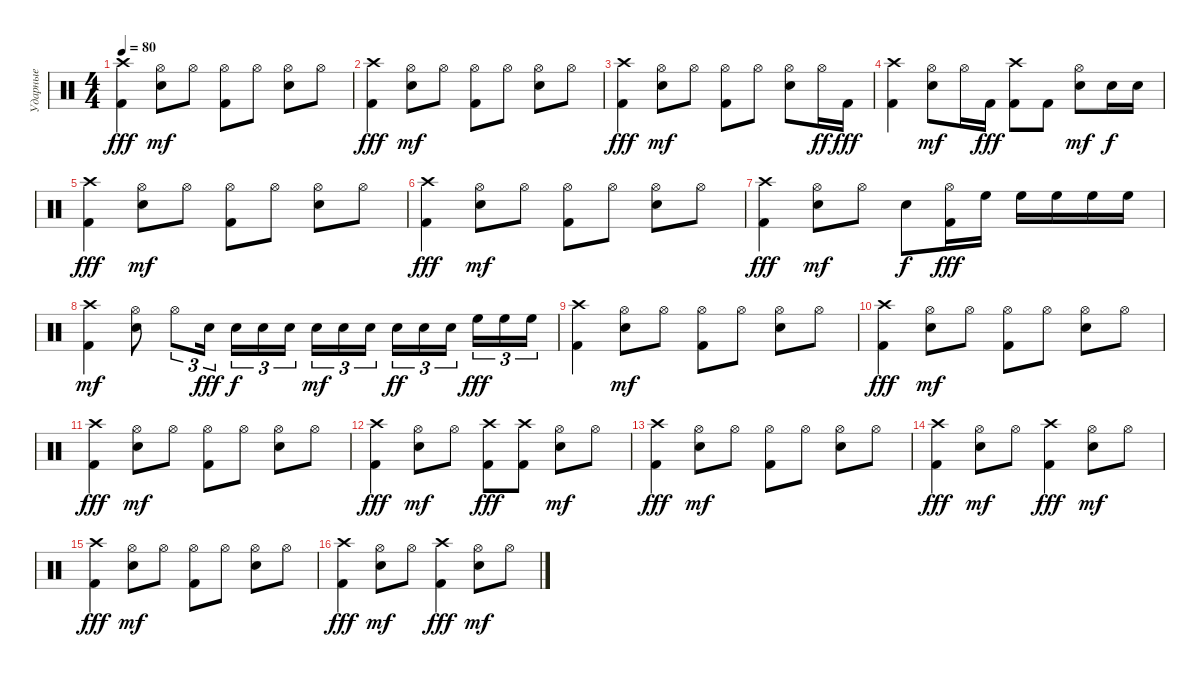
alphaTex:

\track ("Ударные" "Ударные") {instrument percussion}
\staff {score}
\articulation defaults
\ts (4 4)
\tempo 80
\clef neutral
\ks c
("Kick (hit) 2" "Crash high (hit)").4{dy fff} ("Snare (hit) 2" "Hi-Hat (open)").8{dy mf} "Hi-Hat (open)".8 ("Kick (hit) 2" "Hi-Hat (open)").8 "Hi-Hat (open)".8 ("Snare (hit) 2" "Hi-Hat (open)").8 "Hi-Hat (open)".8 |
("Kick (hit) 2" "Crash high (hit)").4{dy fff} ("Snare (hit) 2" "Hi-Hat (open)").8{dy mf} "Hi-Hat (open)".8 ("Kick (hit) 2" "Hi-Hat (open)").8 "Hi-Hat (open)".8 ("Snare (hit) 2" "Hi-Hat (open)").8 "Hi-Hat (open)".8 |
("Kick (hit) 2" "Crash high (hit)").4{dy fff} ("Snare (hit) 2" "Hi-Hat (open)").8{dy mf} "Hi-Hat (open)".8 ("Kick (hit) 2" "Hi-Hat (open)").8 "Hi-Hat (open)".8 ("Snare (hit) 2" "Hi-Hat (open)").8 "Hi-Hat (open)".16{dy ff} "Kick (hit) 2".16{dy fff} |
("Kick (hit) 2" "Crash high (hit)").4 ("Snare (hit) 2" "Hi-Hat (open)").8{dy mf} "Hi-Hat (open)".16 "Kick (hit) 2".16{dy fff} ("Kick (hit) 2" "Crash high (hit)").8 "Kick (hit) 2".8 ("Snare (hit) 2" "Hi-Hat (open)").8{dy mf} "Snare (hit) 2".16{dy f} "Snare (hit) 2".16 |
("Kick (hit) 2" "Crash high (hit)").4{dy fff} ("Snare (hit) 2" "Hi-Hat (open)").8{dy mf} "Hi-Hat (open)".8 ("Kick (hit) 2" "Hi-Hat (open)").8 "Hi-Hat (open)".8 ("Snare (hit) 2" "Hi-Hat (open)").8 "Hi-Hat (open)".8 |
("Kick (hit) 2" "Crash high (hit)").4{dy fff} ("Snare (hit) 2" "Hi-Hat (open)").8{dy mf} "Hi-Hat (open)".8 ("Kick (hit) 2" "Hi-Hat (open)").8 "Hi-Hat (open)".8 ("Snare (hit) 2" "Hi-Hat (open)").8 "Hi-Hat (open)".8 |
("Kick (hit) 2" "Crash high (hit)").4{dy fff} ("Snare (hit) 2" "Hi-Hat (open)").8{dy mf} "Hi-Hat (open)".8 "Snare (hit) 2".8{dy f} ("Kick (hit) 2" "Hi-Hat (open)").16{dy fff} "High Floor Tom (hit)".16 "High Floor Tom (hit)".16 "High Floor Tom (hit)".16 "High Floor Tom (hit)".16 "High Floor Tom (hit)".16 |
("Kick (hit) 2" "Crash high (hit)").4{dy mf} ("Snare (hit) 2" "Hi-Hat (open)").8 "Hi-Hat (open)".8{tu (3 2)} "Snare (hit) 2".16{tu (3 2) dy fff} "Snare (hit) 2".16{tu (3 2) dy f} "Snare (hit) 2".16{tu (3 2)} "Snare (hit) 2".16{tu (3 2) beam splitsecondary} "Snare (hit) 2".16{tu (3 2) dy mf} "Snare (hit) 2".16{tu (3 2)} "Snare (hit) 2".16{tu (3 2)} "Electric Snare (hit)".16{tu (3 2) dy ff} "Electric Snare (hit)".16{tu (3 2)} "Electric Snare (hit)".16{tu (3 2) beam splitsecondary} "High Floor Tom (hit)".16{tu (3 2) dy fff} "High Floor Tom (hit)".16{tu (3 2)} "High Floor Tom (hit)".16{tu (3 2)} |
("Kick (hit) 2" "Crash high (hit)").4 ("Snare (hit) 2" "Hi-Hat (open)").8{dy mf} "Hi-Hat (open)".8 ("Kick (hit) 2" "Hi-Hat (open)").8 "Hi-Hat (open)".8 ("Snare (hit) 2" "Hi-Hat (open)").8 "Hi-Hat (open)".8 |
("Kick (hit) 2" "Crash high (hit)").4{dy fff} ("Snare (hit) 2" "Hi-Hat (open)").8{dy mf} "Hi-Hat (open)".8 ("Kick (hit) 2" "Hi-Hat (open)").8 "Hi-Hat (open)".8 ("Snare (hit) 2" "Hi-Hat (open)").8 "Hi-Hat (open)".8 |
("Kick (hit) 2" "Crash high (hit)").4{dy fff} ("Snare (hit) 2" "Hi-Hat (open)").8{dy mf} "Hi-Hat (open)".8 ("Kick (hit) 2" "Hi-Hat (open)").8 "Hi-Hat (open)".8 ("Snare (hit) 2" "Hi-Hat (open)").8 "Hi-Hat (open)".8 |
("Kick (hit) 2" "Crash high (hit)").4{dy fff} ("Snare (hit) 2" "Hi-Hat (open)").8{dy mf} "Hi-Hat (open)".8 ("Kick (hit) 2" "Crash high (hit)").8{dy fff} ("Kick (hit) 2" "Crash high (hit)").8 ("Snare (hit) 2" "Hi-Hat (open)").8{dy mf} "Hi-Hat (open)".8 |
("Kick (hit) 2" "Crash high (hit)").4{dy fff} ("Snare (hit) 2" "Hi-Hat (open)").8{dy mf} "Hi-Hat (open)".8 ("Kick (hit) 2" "Hi-Hat (open)").8 "Hi-Hat (open)".8 ("Snare (hit) 2" "Hi-Hat (open)").8 "Hi-Hat (open)".8 |
("Kick (hit) 2" "Crash high (hit)").4{dy fff} ("Snare (hit) 2" "Hi-Hat (open)").8{dy mf} "Hi-Hat (open)".8 ("Kick (hit) 2" "Crash high (hit)").4{dy fff} ("Snare (hit) 2" "Hi-Hat (open)").8{dy mf} "Hi-Hat (open)".8 |
("Kick (hit) 2" "Crash high (hit)").4{dy fff} ("Snare (hit) 2" "Hi-Hat (open)").8{dy mf} "Hi-Hat (open)".8 ("Kick (hit) 2" "Hi-Hat (open)").8 "Hi-Hat (open)".8 ("Snare (hit) 2" "Hi-Hat (open)").8 "Hi-Hat (open)".8 |
("Kick (hit) 2" "Crash high (hit)").4{dy fff} ("Snare (hit) 2" "Hi-Hat (open)").8{dy mf} "Hi-Hat (open)".8 ("Kick (hit) 2" "Crash high (hit)").4{dy fff} ("Snare (hit) 2" "Hi-Hat (open)").8{dy mf} "Hi-Hat (open)".8
